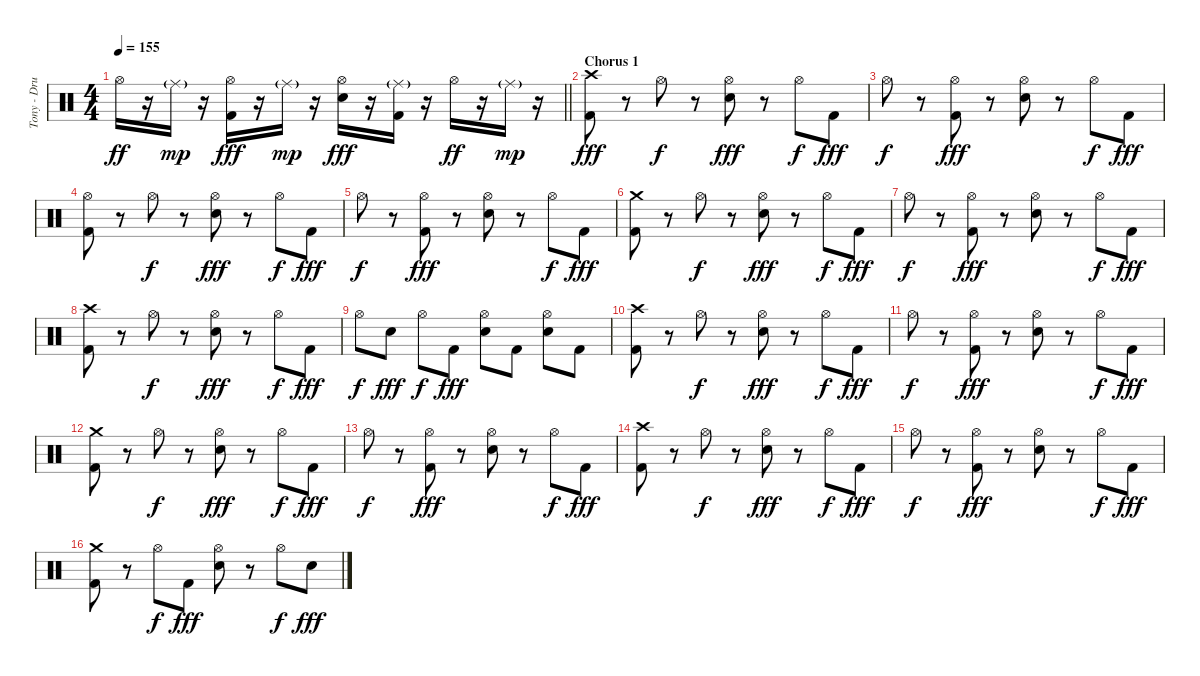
\track ("Tony - Drums" "Tony - Dru") {instrument percussion}
\staff {score}
\articulation defaults
\ts (4 4)
\tempo 155
\clef neutral
\barLineRight lightlight
\ks c "Hi-Hat (open)".16{dy ff}
r.16 "Ride (middle)"{g}.16{dy mp} r.16 ("Hi-Hat (open)" "Kick (hit) 2").16{dy fff} r.16 "Ride (middle)"{g}.16{dy mp} r.16 ("Hi-Hat (open)" "Electric Snare (hit)").16{dy fff} r.16 ("Ride (middle)"{g} "Kick (hit) 2").16 r.16 "Hi-Hat (open)".16{dy ff} r.16 "Ride (middle)"{g}.16{dy mp} r.16 |
\section ("" "Chorus 1")
("Crash high (hit)" "Kick (hit) 2").8{dy fff} r.8 "Hi-Hat (open)".8{dy f} r.8 ("Hi-Hat (open)" "Electric Snare (hit)").8{dy fff} r.8 "Hi-Hat (open)".8{dy f} "Kick (hit) 2".8{dy fff} |
"Hi-Hat (open)".8{dy f} r.8 ("Hi-Hat (open)" "Kick (hit) 2").8{dy fff} r.8 ("Hi-Hat (open)" "Electric Snare (hit)").8 r.8 "Hi-Hat (open)".8{dy f} "Kick (hit) 2".8{dy fff} |
("Hi-Hat (open)" "Kick (hit) 2").8 r.8 "Hi-Hat (open)".8{dy f} r.8 ("Hi-Hat (open)" "Electric Snare (hit)").8{dy fff} r.8 "Hi-Hat (open)".8{dy f} "Kick (hit) 2".8{dy fff} |
"Hi-Hat (open)".8{dy f} r.8 ("Hi-Hat (open)" "Kick (hit) 2").8{dy fff} r.8 ("Hi-Hat (open)" "Electric Snare (hit)").8 r.8 "Hi-Hat (open)".8{dy f} "Kick (hit) 2".8{dy fff} |
("Crash medium (hit)" "Kick (hit) 2").8 r.8 "Hi-Hat (open)".8{dy f} r.8 ("Hi-Hat (open)" "Electric Snare (hit)").8{dy fff} r.8 "Hi-Hat (open)".8{dy f} "Kick (hit) 2".8{dy fff} |
"Hi-Hat (open)".8{dy f} r.8 ("Hi-Hat (open)" "Kick (hit) 2").8{dy fff} r.8 ("Hi-Hat (open)" "Electric Snare (hit)").8 r.8 "Hi-Hat (open)".8{dy f} "Kick (hit) 2".8{dy fff} |
("Crash high (hit)" "Kick (hit) 2").8 r.8 "Hi-Hat (open)".8{dy f} r.8 ("Hi-Hat (open)" "Electric Snare (hit)").8{dy fff} r.8 "Hi-Hat (open)".8{dy f} "Kick (hit) 2".8{dy fff} |
"Hi-Hat (open)".8{dy f} "Electric Snare (hit)".8{dy fff} "Hi-Hat (open)".8{dy f} "Kick (hit) 2".8{dy fff} ("Hi-Hat (open)" "Electric Snare (hit)").8 "Kick (hit) 2".8 ("Hi-Hat (open)" "Electric Snare (hit)").8 "Kick (hit) 2".8 |
("Crash high (hit)" "Kick (hit) 2").8 r.8 "Hi-Hat (open)".8{dy f} r.8 ("Hi-Hat (open)" "Electric Snare (hit)").8{dy fff} r.8 "Hi-Hat (open)".8{dy f} "Kick (hit) 2".8{dy fff} |
"Hi-Hat (open)".8{dy f} r.8 ("Hi-Hat (open)" "Kick (hit) 2").8{dy fff} r.8 ("Hi-Hat (open)" "Electric Snare (hit)").8 r.8 "Hi-Hat (open)".8{dy f} "Kick (hit) 2".8{dy fff} |
("Crash medium (hit)" "Kick (hit) 2").8 r.8 "Hi-Hat (open)".8{dy f} r.8 ("Hi-Hat (open)" "Electric Snare (hit)").8{dy fff} r.8 "Hi-Hat (open)".8{dy f} "Kick (hit) 2".8{dy fff} |
"Hi-Hat (open)".8{dy f} r.8 ("Hi-Hat (open)" "Kick (hit) 2").8{dy fff} r.8 ("Hi-Hat (open)" "Electric Snare (hit)").8 r.8 "Hi-Hat (open)".8{dy f} "Kick (hit) 2".8{dy fff} |
("Crash high (hit)" "Kick (hit) 2").8 r.8 "Hi-Hat (open)".8{dy f} r.8 ("Hi-Hat (open)" "Electric Snare (hit)").8{dy fff} r.8 "Hi-Hat (open)".8{dy f} "Kick (hit) 2".8{dy fff} |
"Hi-Hat (open)".8{dy f} r.8 ("Hi-Hat (open)" "Kick (hit) 2").8{dy fff} r.8 ("Hi-Hat (open)" "Electric Snare (hit)").8 r.8 "Hi-Hat (open)".8{dy f} "Kick (hit) 2".8{dy fff} |
("Crash medium (hit)" "Kick (hit) 2").8 r.8 "Hi-Hat (open)".8{dy f} "Kick (hit) 2".8{dy fff} ("Hi-Hat (open)" "Electric Snare (hit)").8 r.8 "Hi-Hat (open)".8{dy f} "Electric Snare (hit)".8{dy fff}
